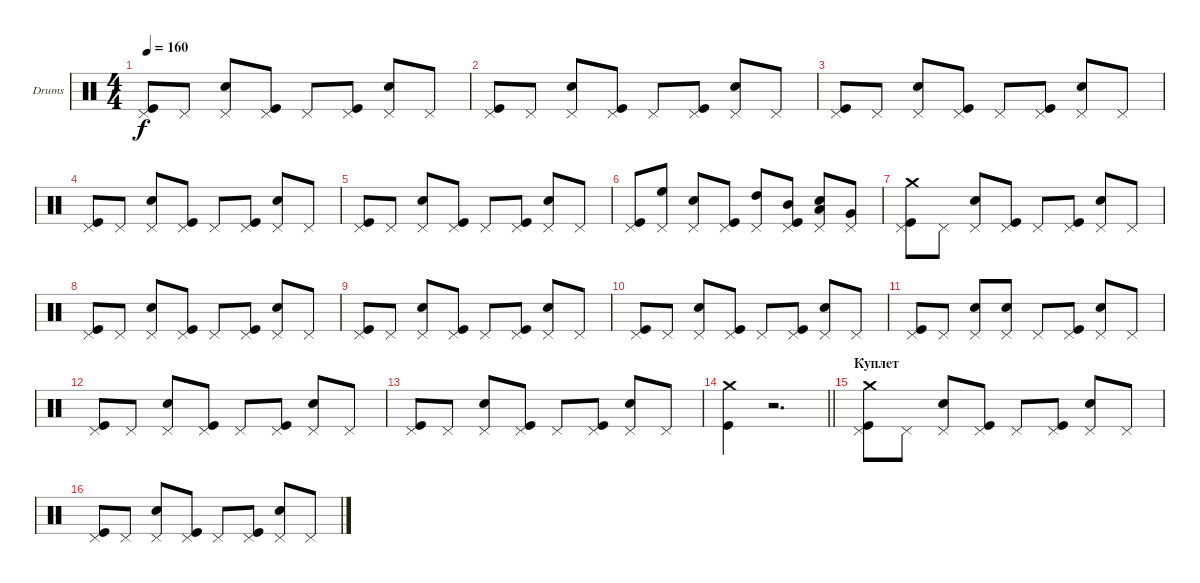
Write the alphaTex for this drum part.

\bracketExtendMode groupsimilarinstruments
\firstSystemTrackNameOrientation horizontal
\otherSystemsTrackNameOrientation horizontal
\track ("Ударные" "Drums") {instrument percussion}
\staff {score}
\articulation defaults
\ts (4 4)
\tempo 160
\clef neutral
\ks c
("Pedal Hi-Hat (hit)" "Kick (hit)").8{dy f} "Pedal Hi-Hat (hit)".8 ("Pedal Hi-Hat (hit)" "Snare (hit) 2").8 ("Pedal Hi-Hat (hit)" "Kick (hit)").8 "Pedal Hi-Hat (hit)".8 ("Pedal Hi-Hat (hit)" "Kick (hit)").8 ("Pedal Hi-Hat (hit)" "Snare (hit) 2").8 "Pedal Hi-Hat (hit)".8 |
("Pedal Hi-Hat (hit)" "Kick (hit)").8 "Pedal Hi-Hat (hit)".8 ("Pedal Hi-Hat (hit)" "Snare (hit) 2").8 ("Pedal Hi-Hat (hit)" "Kick (hit)").8 "Pedal Hi-Hat (hit)".8 ("Pedal Hi-Hat (hit)" "Kick (hit)").8 ("Pedal Hi-Hat (hit)" "Snare (hit) 2").8 "Pedal Hi-Hat (hit)".8 |
("Pedal Hi-Hat (hit)" "Kick (hit)").8 "Pedal Hi-Hat (hit)".8 ("Pedal Hi-Hat (hit)" "Snare (hit) 2").8 ("Pedal Hi-Hat (hit)" "Kick (hit)").8 "Pedal Hi-Hat (hit)".8 ("Pedal Hi-Hat (hit)" "Kick (hit)").8 ("Pedal Hi-Hat (hit)" "Snare (hit) 2").8 "Pedal Hi-Hat (hit)".8 |
("Pedal Hi-Hat (hit)" "Kick (hit)").8 "Pedal Hi-Hat (hit)".8 ("Pedal Hi-Hat (hit)" "Snare (hit) 2").8 ("Pedal Hi-Hat (hit)" "Kick (hit)").8 "Pedal Hi-Hat (hit)".8 ("Pedal Hi-Hat (hit)" "Kick (hit)").8 ("Pedal Hi-Hat (hit)" "Snare (hit) 2").8 "Pedal Hi-Hat (hit)".8 |
("Pedal Hi-Hat (hit)" "Kick (hit)").8 "Pedal Hi-Hat (hit)".8 ("Pedal Hi-Hat (hit)" "Snare (hit) 2").8 ("Pedal Hi-Hat (hit)" "Kick (hit)").8 "Pedal Hi-Hat (hit)".8 ("Pedal Hi-Hat (hit)" "Kick (hit)").8 ("Pedal Hi-Hat (hit)" "Snare (hit) 2").8 "Pedal Hi-Hat (hit)".8 |
("Pedal Hi-Hat (hit)" "Kick (hit)").8 ("Pedal Hi-Hat (hit)" "High Floor Tom (hit)").8 ("Pedal Hi-Hat (hit)" "Snare (hit) 2").8 ("Pedal Hi-Hat (hit)" "Kick (hit)").8 ("Pedal Hi-Hat (hit)" "High Tom (hit)").8 ("Pedal Hi-Hat (hit)" "Mid Tom (hit)" "Kick (hit)").8 ("Pedal Hi-Hat (hit)" "Low Tom (hit)" "Snare (hit) 2").8 ("Pedal Hi-Hat (hit)" "Very Low Tom (hit)").8 |
("Pedal Hi-Hat (hit)" "Crash medium (hit)" "Kick (hit)").8 "Pedal Hi-Hat (hit)".8 ("Pedal Hi-Hat (hit)" "Snare (hit) 2").8 ("Pedal Hi-Hat (hit)" "Kick (hit)").8 "Pedal Hi-Hat (hit)".8 ("Pedal Hi-Hat (hit)" "Kick (hit)").8 ("Pedal Hi-Hat (hit)" "Snare (hit) 2").8 "Pedal Hi-Hat (hit)".8 |
("Pedal Hi-Hat (hit)" "Kick (hit)").8 "Pedal Hi-Hat (hit)".8 ("Pedal Hi-Hat (hit)" "Snare (hit) 2").8 ("Pedal Hi-Hat (hit)" "Kick (hit)").8 "Pedal Hi-Hat (hit)".8 ("Pedal Hi-Hat (hit)" "Kick (hit)").8 ("Pedal Hi-Hat (hit)" "Snare (hit) 2").8 "Pedal Hi-Hat (hit)".8 |
("Pedal Hi-Hat (hit)" "Kick (hit)").8 "Pedal Hi-Hat (hit)".8 ("Pedal Hi-Hat (hit)" "Snare (hit) 2").8 ("Pedal Hi-Hat (hit)" "Kick (hit)").8 "Pedal Hi-Hat (hit)".8 ("Pedal Hi-Hat (hit)" "Kick (hit)").8 ("Pedal Hi-Hat (hit)" "Snare (hit) 2").8 "Pedal Hi-Hat (hit)".8 |
("Pedal Hi-Hat (hit)" "Kick (hit)").8 "Pedal Hi-Hat (hit)".8 ("Pedal Hi-Hat (hit)" "Snare (hit) 2").8 ("Pedal Hi-Hat (hit)" "Kick (hit)").8 "Pedal Hi-Hat (hit)".8 ("Pedal Hi-Hat (hit)" "Kick (hit)").8 ("Pedal Hi-Hat (hit)" "Snare (hit) 2").8 "Pedal Hi-Hat (hit)".8 |
("Pedal Hi-Hat (hit)" "Kick (hit)").8 "Pedal Hi-Hat (hit)".8 ("Pedal Hi-Hat (hit)" "Snare (hit) 2").8 ("Pedal Hi-Hat (hit)" "Snare (hit) 2").8 "Pedal Hi-Hat (hit)".8 ("Pedal Hi-Hat (hit)" "Kick (hit)").8 ("Pedal Hi-Hat (hit)" "Snare (hit) 2").8 "Pedal Hi-Hat (hit)".8 |
("Pedal Hi-Hat (hit)" "Kick (hit)").8 "Pedal Hi-Hat (hit)".8 ("Pedal Hi-Hat (hit)" "Snare (hit) 2").8 ("Pedal Hi-Hat (hit)" "Kick (hit)").8 "Pedal Hi-Hat (hit)".8 ("Pedal Hi-Hat (hit)" "Kick (hit)").8 ("Pedal Hi-Hat (hit)" "Snare (hit) 2").8 "Pedal Hi-Hat (hit)".8 |
("Pedal Hi-Hat (hit)" "Kick (hit)").8 "Pedal Hi-Hat (hit)".8 ("Pedal Hi-Hat (hit)" "Snare (hit) 2").8 ("Pedal Hi-Hat (hit)" "Kick (hit)").8 "Pedal Hi-Hat (hit)".8 ("Pedal Hi-Hat (hit)" "Kick (hit)").8 ("Pedal Hi-Hat (hit)" "Snare (hit) 2").8 "Pedal Hi-Hat (hit)".8 |
\barLineRight lightlight
("Crash medium (hit)" "Kick (hit)").4 r.2{d} |
\section ("" "Куплет")
("Pedal Hi-Hat (hit)" "Crash medium (hit)" "Kick (hit)").8 "Pedal Hi-Hat (hit)".8 ("Pedal Hi-Hat (hit)" "Snare (hit) 2").8 ("Pedal Hi-Hat (hit)" "Kick (hit)").8 "Pedal Hi-Hat (hit)".8 ("Pedal Hi-Hat (hit)" "Kick (hit)").8 ("Pedal Hi-Hat (hit)" "Snare (hit) 2").8 "Pedal Hi-Hat (hit)".8 |
("Pedal Hi-Hat (hit)" "Kick (hit)").8 "Pedal Hi-Hat (hit)".8 ("Pedal Hi-Hat (hit)" "Snare (hit) 2").8 ("Pedal Hi-Hat (hit)" "Kick (hit)").8 "Pedal Hi-Hat (hit)".8 ("Pedal Hi-Hat (hit)" "Kick (hit)").8 ("Pedal Hi-Hat (hit)" "Snare (hit) 2").8 "Pedal Hi-Hat (hit)".8
